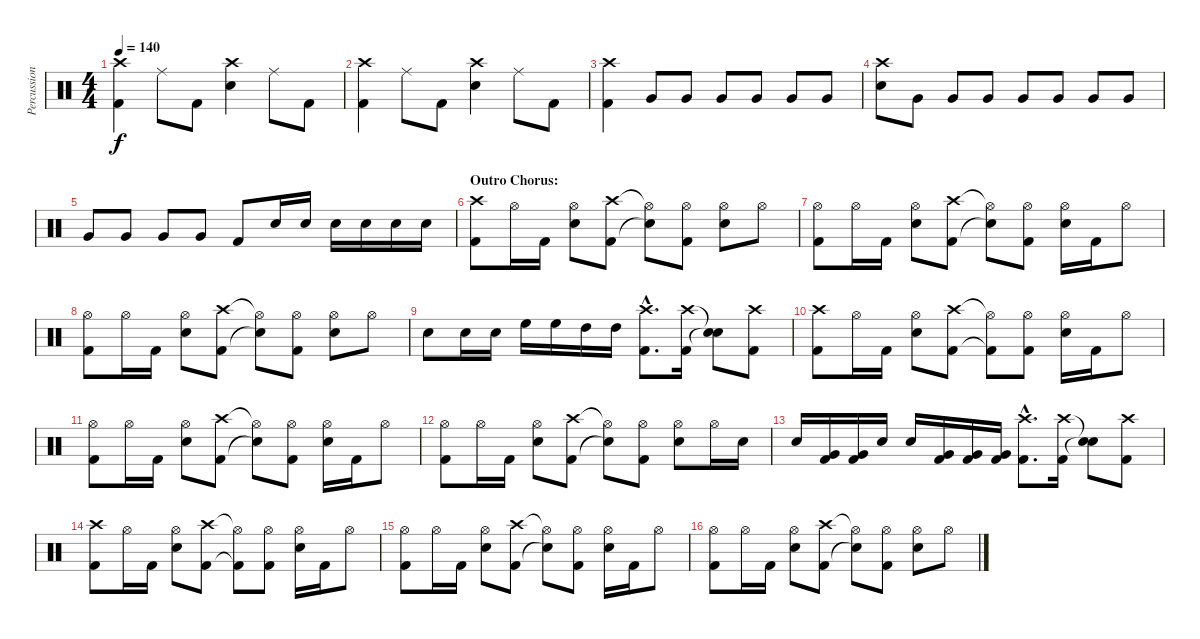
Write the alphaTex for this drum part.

\track ("Percussion" "Percussion") {instrument percussion}
\staff {score}
\articulation defaults
\ts (4 4)
\tempo 140
\clef neutral
\ks c
("Crash high (hit)" "Kick (hit) 2").4{dy f} "Ride (middle)".8 "Kick (hit) 2".8 ("Crash high (hit)" "Snare (hit) 2").4 "Ride (middle)".8 "Kick (hit) 2".8 |
("Crash high (hit)" "Kick (hit) 2").4 "Ride (middle)".8 "Kick (hit) 2".8 ("Crash high (hit)" "Snare (hit) 2").4 "Ride (middle)".8 "Kick (hit) 2".8 |
("Crash high (hit)" "Kick (hit) 2").4 "Very Low Tom (hit)".8 "Very Low Tom (hit)".8 "Very Low Tom (hit)".8 "Very Low Tom (hit)".8 "Very Low Tom (hit)".8 "Very Low Tom (hit)".8 |
("Crash high (hit)" "Snare (hit) 2").8 "Very Low Tom (hit)".8 "Very Low Tom (hit)".8 "Very Low Tom (hit)".8 "Very Low Tom (hit)".8 "Very Low Tom (hit)".8 "Very Low Tom (hit)".8 "Very Low Tom (hit)".8 |
"Very Low Tom (hit)".8 "Very Low Tom (hit)".8 "Very Low Tom (hit)".8 "Very Low Tom (hit)".8 "Kick (hit) 2".8 "Snare (hit) 2".16 "Snare (hit) 2".16 "Snare (hit) 2".16 "Snare (hit) 2".16 "Snare (hit) 2".16 "Snare (hit) 2".16 |
\section ("" "Outro Chorus:")
("Crash high (hit)" "Kick (hit) 2").8 "Hi-Hat (open)".16 "Kick (hit) 2".16 ("Hi-Hat (open)" "Snare (hit) 2").8 ("Crash high (hit)" "Kick (hit) 2").8 ("Hi-Hat (open)"{t} "Snare (hit)"{t}).8 ("Hi-Hat (open)" "Kick (hit) 2").8 ("Hi-Hat (open)" "Snare (hit) 2").8 "Hi-Hat (open)".8 |
("Hi-Hat (open)" "Kick (hit) 2").8 "Hi-Hat (open)".16 "Kick (hit) 2".16 ("Hi-Hat (open)" "Snare (hit) 2").8 ("Crash high (hit)" "Kick (hit) 2").8 ("Hi-Hat (open)"{t} "Snare (hit)"{t}).8 ("Hi-Hat (open)" "Kick (hit) 2").8 ("Hi-Hat (open)" "Snare (hit) 2").16 "Kick (hit) 2".16 "Hi-Hat (open)".8 |
("Hi-Hat (open)" "Kick (hit) 2").8 "Hi-Hat (open)".16 "Kick (hit) 2".16 ("Hi-Hat (open)" "Snare (hit) 2").8 ("Crash high (hit)" "Kick (hit) 2").8 ("Hi-Hat (open)"{t} "Snare (hit)"{t}).8 ("Hi-Hat (open)" "Kick (hit) 2").8 ("Hi-Hat (open)" "Snare (hit) 2").8 "Hi-Hat (open)".8 |
"Snare (hit) 2".8 "Snare (hit) 2".16 "Snare (hit) 2".16 "High Floor Tom (hit)".16 "High Floor Tom (hit)".16 "High Tom (hit)".16 "High Tom (hit)".16 ("Crash high (hit)"{hac} "Kick (hit) 2"{hac}).8{d} ("Crash high (hit)" "Kick (hit) 2").16 ("Snare (hit)"{t} "Snare (hit)"{t}).8 ("Crash high (hit)" "Kick (hit) 2").8 |
("Crash high (hit)" "Kick (hit) 2").8 "Hi-Hat (open)".16 "Kick (hit) 2".16 ("Hi-Hat (open)" "Snare (hit) 2").8 ("Crash high (hit)" "Kick (hit) 2").8 ("Hi-Hat (open)"{t} "Kick (hit) 2"{t}).8 ("Hi-Hat (open)" "Kick (hit) 2").8 ("Hi-Hat (open)" "Snare (hit) 2").16 "Kick (hit) 2".16 "Hi-Hat (open)".8 |
("Hi-Hat (open)" "Kick (hit) 2").8 "Hi-Hat (open)".16 "Kick (hit) 2".16 ("Hi-Hat (open)" "Snare (hit) 2").8 ("Crash high (hit)" "Kick (hit) 2").8 ("Hi-Hat (open)"{t} "Snare (hit)"{t}).8 ("Hi-Hat (open)" "Kick (hit) 2").8 ("Hi-Hat (open)" "Snare (hit) 2").16 "Kick (hit) 2".16 "Hi-Hat (open)".8 |
("Hi-Hat (open)" "Kick (hit) 2").8 "Hi-Hat (open)".16 "Kick (hit) 2".16 ("Hi-Hat (open)" "Snare (hit) 2").8 ("Crash high (hit)" "Kick (hit) 2").8 ("Hi-Hat (open)"{t} "Snare (hit)"{t}).8 ("Hi-Hat (open)" "Kick (hit) 2").8 ("Hi-Hat (open)" "Snare (hit) 2").8 "Hi-Hat (open)".16 "Snare (hit) 2".16 |
"Snare (hit) 2".16 ("Very Low Tom (hit)" "Kick (hit) 2").16 ("Very Low Tom (hit)" "Kick (hit) 2").16 "Snare (hit) 2".16 "Snare (hit) 2".16 ("Very Low Tom (hit)" "Kick (hit) 2").16 ("Very Low Tom (hit)" "Kick (hit) 2").16 ("Very Low Tom (hit)" "Kick (hit) 2").16 ("Crash high (hit)"{hac} "Kick (hit) 2"{hac}).8{d} ("Crash high (hit)" "Kick (hit) 2").16 ("Snare (hit)"{t} "Snare (hit)"{t}).8 ("Crash high (hit)" "Kick (hit) 2").8 |
("Crash high (hit)" "Kick (hit) 2").8 "Hi-Hat (open)".16 "Kick (hit) 2".16 ("Hi-Hat (open)" "Snare (hit) 2").8 ("Crash high (hit)" "Kick (hit) 2").8 ("Hi-Hat (open)"{t} "Kick (hit) 2"{t}).8 ("Hi-Hat (open)" "Kick (hit) 2").8 ("Hi-Hat (open)" "Snare (hit) 2").16 "Kick (hit) 2".16 "Hi-Hat (open)".8 |
("Hi-Hat (open)" "Kick (hit) 2").8 "Hi-Hat (open)".16 "Kick (hit) 2".16 ("Hi-Hat (open)" "Snare (hit) 2").8 ("Crash high (hit)" "Kick (hit) 2").8 ("Hi-Hat (open)"{t} "Snare (hit)"{t}).8 ("Hi-Hat (open)" "Kick (hit) 2").8 ("Hi-Hat (open)" "Snare (hit) 2").16 "Kick (hit) 2".16 "Hi-Hat (open)".8 |
("Hi-Hat (open)" "Kick (hit) 2").8 "Hi-Hat (open)".16 "Kick (hit) 2".16 ("Hi-Hat (open)" "Snare (hit) 2").8 ("Crash high (hit)" "Kick (hit) 2").8 ("Hi-Hat (open)"{t} "Snare (hit)"{t}).8 ("Hi-Hat (open)" "Kick (hit) 2").8 ("Hi-Hat (open)" "Snare (hit) 2").8 "Hi-Hat (open)".8
